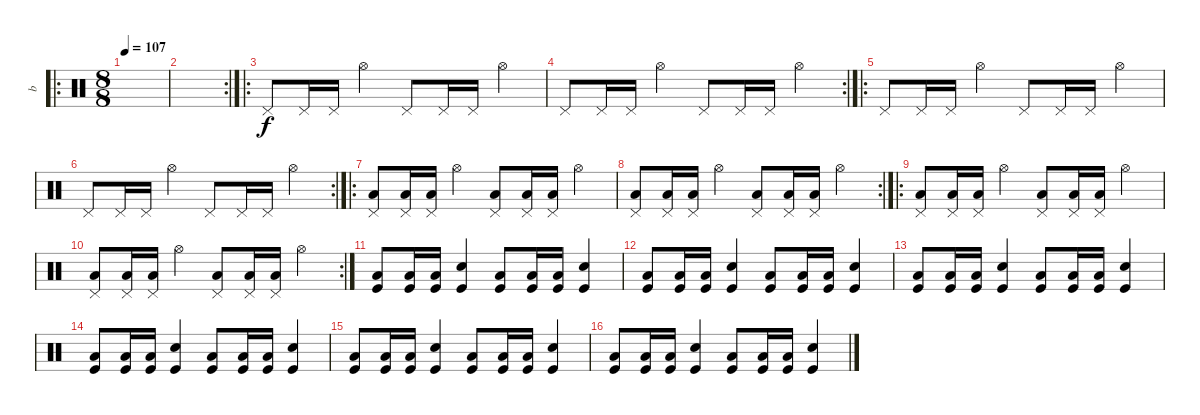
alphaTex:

\track ("b" "b") {instrument percussion}
\staff {score}
\articulation defaults
\ro
\ts (8 8)
\tempo 107
\clef neutral
\ks c
|
\rc 2
|
\ro "Pedal Hi-Hat (hit)".8 "Pedal Hi-Hat (hit)".16 "Pedal Hi-Hat (hit)".16 "Hi-Hat (open)".4 "Pedal Hi-Hat (hit)".8 "Pedal Hi-Hat (hit)".16 "Pedal Hi-Hat (hit)".16 "Hi-Hat (open)".4
|
\rc 2 "Pedal Hi-Hat (hit)".8 "Pedal Hi-Hat (hit)".16 "Pedal Hi-Hat (hit)".16 "Hi-Hat (open)".4 "Pedal Hi-Hat (hit)".8 "Pedal Hi-Hat (hit)".16 "Pedal Hi-Hat (hit)".16 "Hi-Hat (open)".4
|
\ro "Pedal Hi-Hat (hit)".8 "Pedal Hi-Hat (hit)".16 "Pedal Hi-Hat (hit)".16 "Hi-Hat (open)".4 "Pedal Hi-Hat (hit)".8 "Pedal Hi-Hat (hit)".16 "Pedal Hi-Hat (hit)".16 "Hi-Hat (open)".4
|
\rc 2 "Pedal Hi-Hat (hit)".8 "Pedal Hi-Hat (hit)".16 "Pedal Hi-Hat (hit)".16 "Hi-Hat (open)".4 "Pedal Hi-Hat (hit)".8 "Pedal Hi-Hat (hit)".16 "Pedal Hi-Hat (hit)".16 "Hi-Hat (open)".4
|
\ro
("Pedal Hi-Hat (hit)" "Low Tom (hit)").8 ("Pedal Hi-Hat (hit)" "Low Tom (hit)").16 ("Pedal Hi-Hat (hit)" "Low Tom (hit)").16 "Hi-Hat (open)".4 ("Pedal Hi-Hat (hit)" "Low Tom (hit)").8 ("Pedal Hi-Hat (hit)" "Low Tom (hit)").16 ("Pedal Hi-Hat (hit)" "Low Tom (hit)").16 "Hi-Hat (open)".4 |
\rc 2
("Pedal Hi-Hat (hit)" "Low Tom (hit)").8 ("Pedal Hi-Hat (hit)" "Low Tom (hit)").16 ("Pedal Hi-Hat (hit)" "Low Tom (hit)").16 "Hi-Hat (open)".4 ("Pedal Hi-Hat (hit)" "Low Tom (hit)").8 ("Pedal Hi-Hat (hit)" "Low Tom (hit)").16 ("Pedal Hi-Hat (hit)" "Low Tom (hit)").16 "Hi-Hat (open)".4 |
\ro
("Pedal Hi-Hat (hit)" "Low Tom (hit)").8 ("Pedal Hi-Hat (hit)" "Low Tom (hit)").16 ("Pedal Hi-Hat (hit)" "Low Tom (hit)").16 "Hi-Hat (open)".4 ("Pedal Hi-Hat (hit)" "Low Tom (hit)").8 ("Pedal Hi-Hat (hit)" "Low Tom (hit)").16 ("Pedal Hi-Hat (hit)" "Low Tom (hit)").16 "Hi-Hat (open)".4 |
\rc 2
("Pedal Hi-Hat (hit)" "Low Tom (hit)").8 ("Pedal Hi-Hat (hit)" "Low Tom (hit)").16 ("Pedal Hi-Hat (hit)" "Low Tom (hit)").16 "Hi-Hat (open)".4 ("Pedal Hi-Hat (hit)" "Low Tom (hit)").8 ("Pedal Hi-Hat (hit)" "Low Tom (hit)").16 ("Pedal Hi-Hat (hit)" "Low Tom (hit)").16 "Hi-Hat (open)".4 |
("Kick (hit)" "Low Tom (hit)").8 ("Kick (hit)" "Low Tom (hit)").16 ("Kick (hit)" "Low Tom (hit)").16 ("Electric Snare (hit)" "Kick (hit)").4 ("Kick (hit)" "Low Tom (hit)").8 ("Kick (hit)" "Low Tom (hit)").16 ("Kick (hit)" "Low Tom (hit)").16 ("Electric Snare (hit)" "Kick (hit)").4 |
("Kick (hit)" "Low Tom (hit)").8 ("Kick (hit)" "Low Tom (hit)").16 ("Kick (hit)" "Low Tom (hit)").16 ("Electric Snare (hit)" "Kick (hit)").4 ("Kick (hit)" "Low Tom (hit)").8 ("Kick (hit)" "Low Tom (hit)").16 ("Kick (hit)" "Low Tom (hit)").16 ("Electric Snare (hit)" "Kick (hit)").4 |
("Kick (hit)" "Low Tom (hit)").8 ("Kick (hit)" "Low Tom (hit)").16 ("Kick (hit)" "Low Tom (hit)").16 ("Electric Snare (hit)" "Kick (hit)").4 ("Kick (hit)" "Low Tom (hit)").8 ("Kick (hit)" "Low Tom (hit)").16 ("Kick (hit)" "Low Tom (hit)").16 ("Electric Snare (hit)" "Kick (hit)").4 |
("Kick (hit)" "Low Tom (hit)").8 ("Kick (hit)" "Low Tom (hit)").16 ("Kick (hit)" "Low Tom (hit)").16 ("Electric Snare (hit)" "Kick (hit)").4 ("Kick (hit)" "Low Tom (hit)").8 ("Kick (hit)" "Low Tom (hit)").16 ("Kick (hit)" "Low Tom (hit)").16 ("Electric Snare (hit)" "Kick (hit)").4 |
("Kick (hit)" "Low Tom (hit)").8 ("Kick (hit)" "Low Tom (hit)").16 ("Kick (hit)" "Low Tom (hit)").16 ("Electric Snare (hit)" "Kick (hit)").4 ("Kick (hit)" "Low Tom (hit)").8 ("Kick (hit)" "Low Tom (hit)").16 ("Kick (hit)" "Low Tom (hit)").16 ("Electric Snare (hit)" "Kick (hit)").4 |
("Kick (hit)" "Low Tom (hit)").8 ("Kick (hit)" "Low Tom (hit)").16 ("Kick (hit)" "Low Tom (hit)").16 ("Electric Snare (hit)" "Kick (hit)").4 ("Kick (hit)" "Low Tom (hit)").8 ("Kick (hit)" "Low Tom (hit)").16 ("Kick (hit)" "Low Tom (hit)").16 ("Electric Snare (hit)" "Kick (hit)").4
